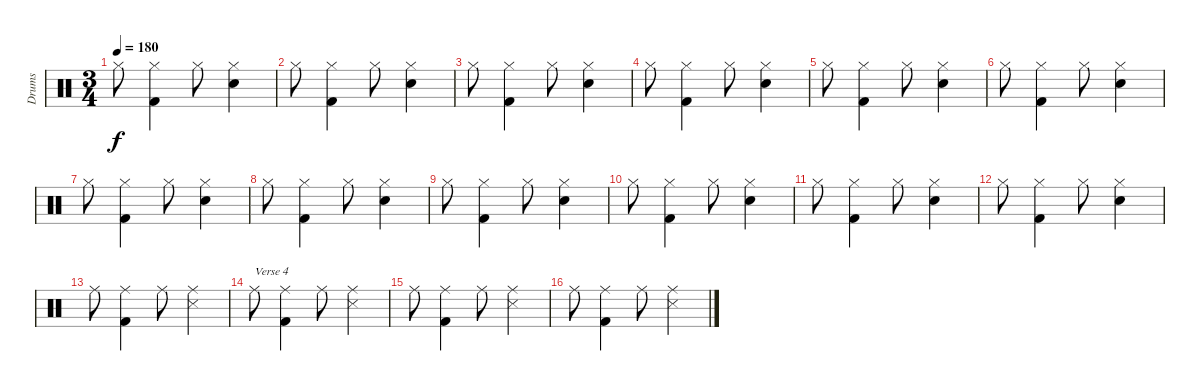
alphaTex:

\track ("Drums" "Drums") {instrument percussion}
\staff {score}
\articulation defaults
\ts (3 4)
\tempo 180
\clef neutral
\ks c "Hi-Hat (closed)".8{dy f}
("Hi-Hat (closed)" "Kick (hit) 2").4 "Hi-Hat (closed)".8 ("Hi-Hat (closed)" "Snare (hit) 2").4 |
"Hi-Hat (closed)".8 ("Hi-Hat (closed)" "Kick (hit) 2").4 "Hi-Hat (closed)".8 ("Hi-Hat (closed)" "Snare (hit) 2").4 |
"Hi-Hat (closed)".8 ("Hi-Hat (closed)" "Kick (hit) 2").4 "Hi-Hat (closed)".8 ("Hi-Hat (closed)" "Snare (hit) 2").4 |
"Hi-Hat (closed)".8 ("Hi-Hat (closed)" "Kick (hit) 2").4 "Hi-Hat (closed)".8 ("Hi-Hat (closed)" "Snare (hit) 2").4 |
"Hi-Hat (closed)".8 ("Hi-Hat (closed)" "Kick (hit) 2").4 "Hi-Hat (closed)".8 ("Hi-Hat (closed)" "Snare (hit) 2").4 |
"Hi-Hat (closed)".8 ("Hi-Hat (closed)" "Kick (hit) 2").4 "Hi-Hat (closed)".8 ("Hi-Hat (closed)" "Snare (hit) 2").4 |
"Hi-Hat (closed)".8 ("Hi-Hat (closed)" "Kick (hit) 2").4 "Hi-Hat (closed)".8 ("Hi-Hat (closed)" "Snare (hit) 2").4 |
"Hi-Hat (closed)".8 ("Hi-Hat (closed)" "Kick (hit) 2").4 "Hi-Hat (closed)".8 ("Hi-Hat (closed)" "Snare (hit) 2").4 |
"Hi-Hat (closed)".8 ("Hi-Hat (closed)" "Kick (hit) 2").4 "Hi-Hat (closed)".8 ("Hi-Hat (closed)" "Snare (hit) 2").4 |
"Hi-Hat (closed)".8 ("Hi-Hat (closed)" "Kick (hit) 2").4 "Hi-Hat (closed)".8 ("Hi-Hat (closed)" "Snare (hit) 2").4 |
"Hi-Hat (closed)".8 ("Hi-Hat (closed)" "Kick (hit) 2").4 "Hi-Hat (closed)".8 ("Hi-Hat (closed)" "Snare (hit) 2").4 |
"Hi-Hat (closed)".8 ("Hi-Hat (closed)" "Kick (hit) 2").4 "Hi-Hat (closed)".8 ("Hi-Hat (closed)" "Snare (hit) 2").4 |
"Ride (middle)".8 ("Ride (middle)" "Kick (hit) 2").4 "Ride (middle)".8 ("Ride (middle)" "Snare (side stick) 3").4 |
"Ride (middle)".8{txt "Verse 4"} ("Ride (middle)" "Kick (hit) 2").4 "Ride (middle)".8 ("Ride (middle)" "Snare (side stick) 3").4 |
"Ride (middle)".8 ("Ride (middle)" "Kick (hit) 2").4 "Ride (middle)".8 ("Ride (middle)" "Snare (side stick) 3").4 |
"Ride (middle)".8 ("Ride (middle)" "Kick (hit) 2").4 "Ride (middle)".8 ("Ride (middle)" "Snare (side stick) 3").4
